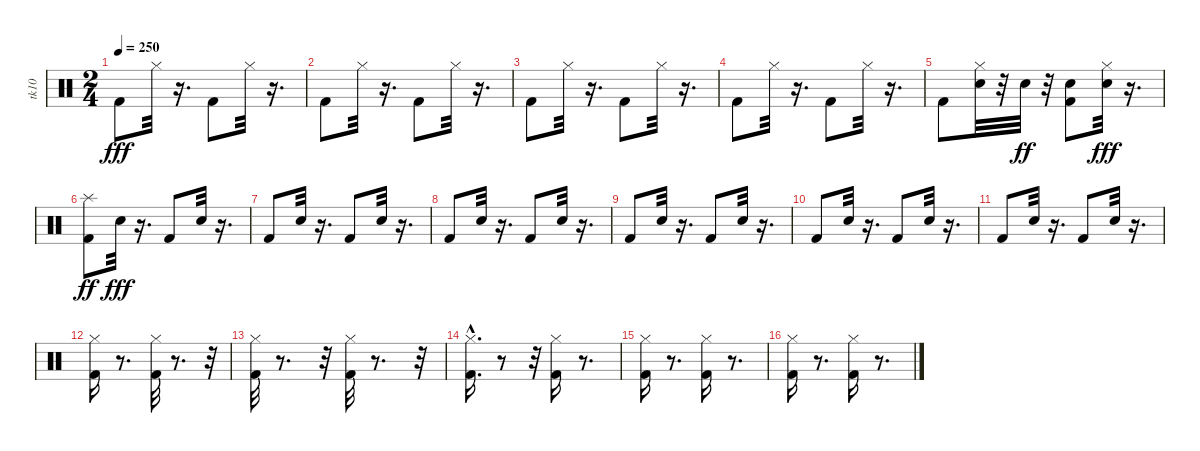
\track ("tk10" "tk10") {instrument percussion}
\staff {score}
\articulation defaults
\ts (2 4)
\tempo 250
\clef neutral
\ks c "Kick (hit) 2".8{dy fff} "Hi-Hat (closed)".32
r.16{d} "Kick (hit) 2".8 "Hi-Hat (closed)".32 r.16{d} |
"Kick (hit) 2".8 "Hi-Hat (closed)".32 r.16{d} "Kick (hit) 2".8 "Hi-Hat (closed)".32 r.16{d} |
"Kick (hit) 2".8 "Hi-Hat (closed)".32 r.16{d} "Kick (hit) 2".8 "Hi-Hat (closed)".32 r.16{d} |
"Kick (hit) 2".8 "Hi-Hat (closed)".32 r.16{d} "Kick (hit) 2".8 "Hi-Hat (closed)".32 r.16{d} |
"Kick (hit) 2".8 ("Hi-Hat (closed)" "Electric Snare (hit)").32 r.32 "Electric Snare (hit)".32{dy ff} r.32 ("Kick (hit) 2" "Electric Snare (hit)").8 ("Hi-Hat (closed)" "Electric Snare (hit)").32{dy fff} r.16{d} |
("Kick (hit) 2" "Splash (hit)").8{dy ff} "Snare (hit) 2".32{dy fff} r.16{d} "Kick (hit) 2".8 "Snare (hit) 2".32 r.16{d} |
"Kick (hit) 2".8 "Snare (hit) 2".32 r.16{d} "Kick (hit) 2".8 "Snare (hit) 2".32 r.16{d} |
"Kick (hit) 2".8 "Snare (hit) 2".32 r.16{d} "Kick (hit) 2".8 "Snare (hit) 2".32 r.16{d} |
"Kick (hit) 2".8 "Snare (hit) 2".32 r.16{d} "Kick (hit) 2".8 "Snare (hit) 2".32 r.16{d} |
"Kick (hit) 2".8 "Snare (hit) 2".32 r.16{d} "Kick (hit) 2".8 "Snare (hit) 2".32 r.16{d} |
"Kick (hit) 2".8 "Snare (hit) 2".32 r.16{d} "Kick (hit) 2".8 "Snare (hit) 2".32 r.16{d} |
("Hi-Hat (closed)" "Kick (hit) 2").16 r.8{d} ("Kick (hit) 2" "Hi-Hat (closed)").32 r.8{d} r.32 |
("Hi-Hat (closed)" "Kick (hit) 2").32 r.8{d} r.32 ("Hi-Hat (closed)" "Kick (hit) 2").32 r.8{d} r.32 |
("Hi-Hat (closed)" "Kick (hit) 2"{hac}).16{d} r.8 r.32 ("Kick (hit) 2" "Hi-Hat (closed)").16 r.8{d} |
("Hi-Hat (closed)" "Kick (hit) 2").16 r.8{d} ("Kick (hit) 2" "Hi-Hat (closed)").16 r.8{d} |
("Kick (hit) 2" "Hi-Hat (closed)").16 r.8{d} ("Hi-Hat (closed)" "Kick (hit) 2").16 r.8{d}
